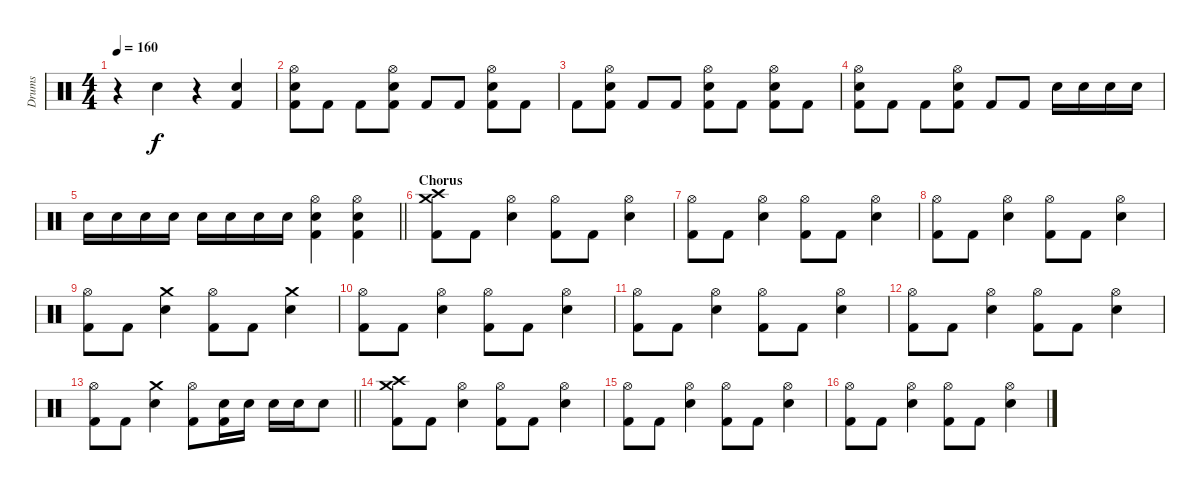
\track ("Drums" "Drums") {instrument percussion}
\staff {score}
\articulation defaults
\ts (4 4)
\tempo 160
\clef neutral
\ks c
r.4{dy f} "Snare (hit) 2".4 r.4 ("Snare (hit) 2" "Kick (hit) 2").4 |
("Hi-Hat (open)" "Snare (hit) 2" "Kick (hit) 2").8 "Kick (hit) 2".8 "Kick (hit) 2".8 ("Hi-Hat (open)" "Snare (hit) 2" "Kick (hit) 2").8 "Kick (hit) 2".8 "Kick (hit) 2".8 ("Hi-Hat (open)" "Snare (hit) 2" "Kick (hit) 2").8 "Kick (hit) 2".8 |
"Kick (hit) 2".8 ("Hi-Hat (open)" "Snare (hit) 2" "Kick (hit) 2").8 "Kick (hit) 2".8 "Kick (hit) 2".8 ("Hi-Hat (open)" "Snare (hit) 2" "Kick (hit) 2").8 "Kick (hit) 2".8 ("Hi-Hat (open)" "Snare (hit) 2" "Kick (hit) 2").8 "Kick (hit) 2".8 |
("Hi-Hat (open)" "Snare (hit) 2" "Kick (hit) 2").8 "Kick (hit) 2".8 "Kick (hit) 2".8 ("Hi-Hat (open)" "Snare (hit) 2" "Kick (hit) 2").8 "Kick (hit) 2".8 "Kick (hit) 2".8 "Snare (hit) 2".16 "Snare (hit) 2".16 "Snare (hit) 2".16 "Snare (hit) 2".16 |
\barLineRight lightlight "Snare (hit) 2".16 "Snare (hit) 2".16 "Electric Snare (hit)".16 "Electric Snare (hit)".16 "Electric Snare (hit)".16 "Electric Snare (hit)".16 "Electric Snare (hit)".16 "Electric Snare (hit)".16
("Hi-Hat (open)" "Snare (hit) 2" "Kick (hit) 2").4 ("Hi-Hat (open)" "Snare (hit) 2" "Kick (hit) 2").4 |
\section ("" "Chorus")
("Crash medium (hit)" "Crash high (hit)" "Kick (hit) 2").8 "Kick (hit) 2".8 ("Hi-Hat (open)" "Snare (hit) 2").4 ("Hi-Hat (open)" "Kick (hit) 2").8 "Kick (hit) 2".8 ("Hi-Hat (open)" "Snare (hit) 2").4 |
("Hi-Hat (open)" "Kick (hit) 2").8 "Kick (hit) 2".8 ("Hi-Hat (open)" "Snare (hit) 2").4 ("Hi-Hat (open)" "Kick (hit) 2").8 "Kick (hit) 2".8 ("Hi-Hat (open)" "Snare (hit) 2").4 |
("Hi-Hat (open)" "Kick (hit) 2").8 "Kick (hit) 2".8 ("Hi-Hat (open)" "Snare (hit) 2").4 ("Hi-Hat (open)" "Kick (hit) 2").8 "Kick (hit) 2".8 ("Hi-Hat (open)" "Snare (hit) 2").4 |
("Hi-Hat (open)" "Kick (hit) 2").8 "Kick (hit) 2".8 ("Crash medium (hit)" "Snare (hit) 2").4 ("Hi-Hat (open)" "Kick (hit) 2").8 "Kick (hit) 2".8 ("Crash medium (hit)" "Snare (hit) 2").4 |
("Hi-Hat (open)" "Kick (hit) 2").8 "Kick (hit) 2".8 ("Hi-Hat (open)" "Snare (hit) 2").4 ("Hi-Hat (open)" "Kick (hit) 2").8 "Kick (hit) 2".8 ("Hi-Hat (open)" "Snare (hit) 2").4 |
("Hi-Hat (open)" "Kick (hit) 2").8 "Kick (hit) 2".8 ("Hi-Hat (open)" "Snare (hit) 2").4 ("Hi-Hat (open)" "Kick (hit) 2").8 "Kick (hit) 2".8 ("Hi-Hat (open)" "Snare (hit) 2").4 |
("Hi-Hat (open)" "Kick (hit) 2").8 "Kick (hit) 2".8 ("Hi-Hat (open)" "Snare (hit) 2").4 ("Hi-Hat (open)" "Kick (hit) 2").8 "Kick (hit) 2".8 ("Hi-Hat (open)" "Snare (hit) 2").4 |
\barLineRight lightlight
("Hi-Hat (open)" "Kick (hit) 2").8 "Kick (hit) 2".8 ("Crash medium (hit)" "Snare (hit) 2").4 ("Hi-Hat (open)" "Kick (hit) 2").8 ("Snare (hit) 2" "Kick (hit) 2").16 "Snare (hit) 2".16 "Snare (hit) 2".16 "Snare (hit) 2".16 "Snare (hit) 2".8 |
("Crash medium (hit)" "Crash high (hit)" "Kick (hit) 2").8 "Kick (hit) 2".8 ("Hi-Hat (open)" "Snare (hit) 2").4 ("Hi-Hat (open)" "Kick (hit) 2").8 "Kick (hit) 2".8 ("Hi-Hat (open)" "Snare (hit) 2").4 |
("Hi-Hat (open)" "Kick (hit) 2").8 "Kick (hit) 2".8 ("Hi-Hat (open)" "Snare (hit) 2").4 ("Hi-Hat (open)" "Kick (hit) 2").8 "Kick (hit) 2".8 ("Hi-Hat (open)" "Snare (hit) 2").4 |
("Hi-Hat (open)" "Kick (hit) 2").8 "Kick (hit) 2".8 ("Hi-Hat (open)" "Snare (hit) 2").4 ("Hi-Hat (open)" "Kick (hit) 2").8 "Kick (hit) 2".8 ("Hi-Hat (open)" "Snare (hit) 2").4
